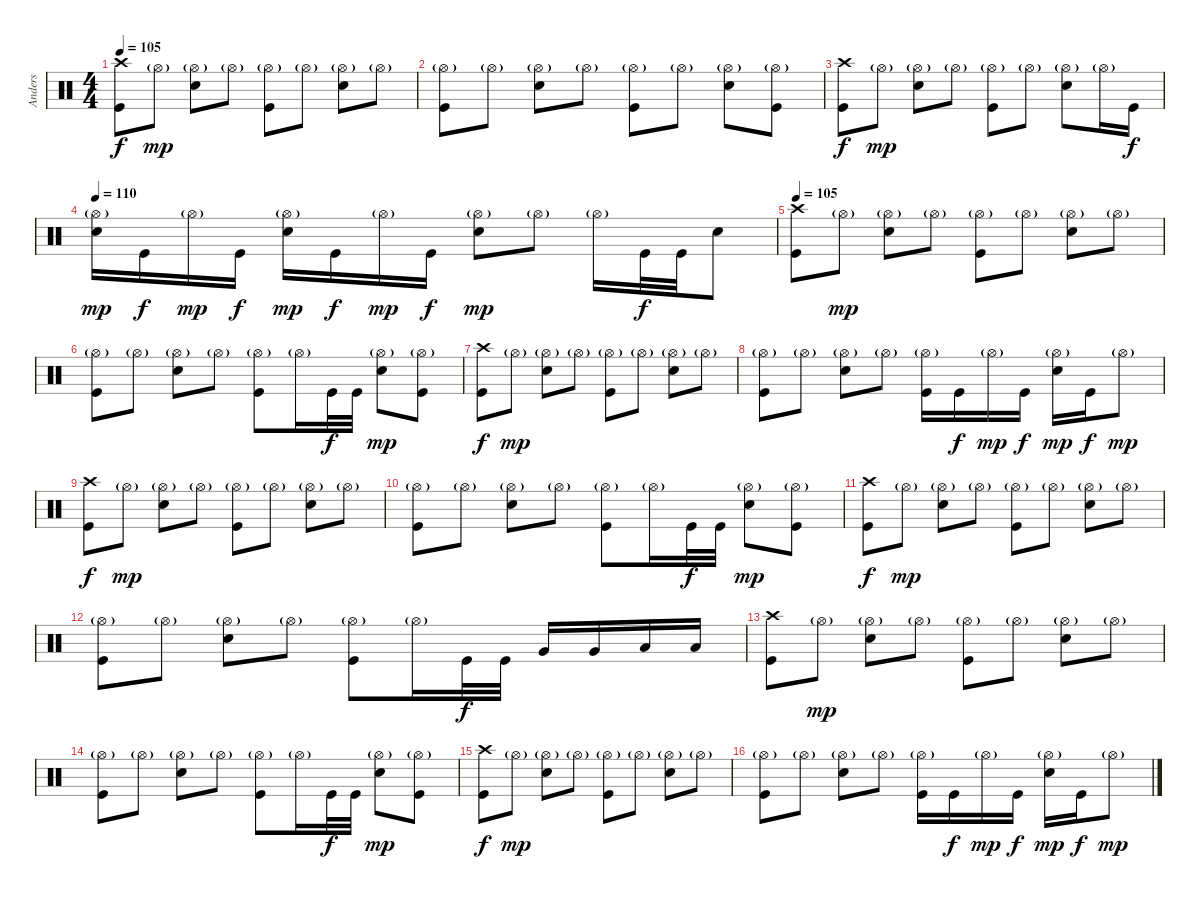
\track ("Anders" "Anders") {instrument percussion}
\staff {score}
\articulation defaults
\ts (4 4)
\tempo 105
\clef neutral
\ks c
("Crash high (hit)" "Kick (hit)").8{dy f} "Hi-Hat (open)"{g}.8{dy mp} ("Hi-Hat (open)"{g} "Snare (hit) 2").8 "Hi-Hat (open)"{g}.8 ("Hi-Hat (open)"{g} "Kick (hit)").8 "Hi-Hat (open)"{g}.8 ("Hi-Hat (open)"{g} "Snare (hit) 2").8 "Hi-Hat (open)"{g}.8 |
("Hi-Hat (open)"{g} "Kick (hit)").8 "Hi-Hat (open)"{g}.8 ("Hi-Hat (open)"{g} "Snare (hit) 2").8 "Hi-Hat (open)"{g}.8 ("Hi-Hat (open)"{g} "Kick (hit)").8 "Hi-Hat (open)"{g}.8 ("Hi-Hat (open)"{g} "Snare (hit) 2").8 ("Hi-Hat (open)"{g} "Kick (hit)").8 |
("Crash high (hit)" "Kick (hit)").8{dy f} "Hi-Hat (open)"{g}.8{dy mp} ("Hi-Hat (open)"{g} "Snare (hit) 2").8 "Hi-Hat (open)"{g}.8 ("Hi-Hat (open)"{g} "Kick (hit)").8 "Hi-Hat (open)"{g}.8 ("Hi-Hat (open)"{g} "Snare (hit) 2").8 "Hi-Hat (open)"{g}.16 "Kick (hit)".16{dy f} |
\tempo 110
("Hi-Hat (open)"{g} "Snare (hit) 2").16{dy mp} "Kick (hit)".16{dy f} "Hi-Hat (open)"{g}.16{dy mp} "Kick (hit)".16{dy f} ("Hi-Hat (open)"{g} "Snare (hit) 2").16{dy mp} "Kick (hit)".16{dy f} "Hi-Hat (open)"{g}.16{dy mp} "Kick (hit)".16{dy f} ("Hi-Hat (open)"{g} "Snare (hit) 2").8{dy mp} "Hi-Hat (open)"{g}.8 "Hi-Hat (open)"{g}.16 "Kick (hit)".32{dy f} "Kick (hit)".32 "Snare (hit) 2".8 |
\tempo 105
("Crash high (hit)" "Kick (hit)").8 "Hi-Hat (open)"{g}.8{dy mp} ("Hi-Hat (open)"{g} "Snare (hit) 2").8 "Hi-Hat (open)"{g}.8 ("Hi-Hat (open)"{g} "Kick (hit)").8 "Hi-Hat (open)"{g}.8 ("Hi-Hat (open)"{g} "Snare (hit) 2").8 "Hi-Hat (open)"{g}.8 |
("Hi-Hat (open)"{g} "Kick (hit)").8 "Hi-Hat (open)"{g}.8 ("Hi-Hat (open)"{g} "Snare (hit) 2").8 "Hi-Hat (open)"{g}.8 ("Hi-Hat (open)"{g} "Kick (hit)").8 "Hi-Hat (open)"{g}.16 "Kick (hit)".32{dy f} "Kick (hit)".32 ("Hi-Hat (open)"{g} "Snare (hit) 2").8{dy mp} ("Hi-Hat (open)"{g} "Kick (hit)").8 |
("Crash high (hit)" "Kick (hit)").8{dy f} "Hi-Hat (open)"{g}.8{dy mp} ("Hi-Hat (open)"{g} "Snare (hit) 2").8 "Hi-Hat (open)"{g}.8 ("Hi-Hat (open)"{g} "Kick (hit)").8 "Hi-Hat (open)"{g}.8 ("Hi-Hat (open)"{g} "Snare (hit) 2").8 "Hi-Hat (open)"{g}.8 |
("Hi-Hat (open)"{g} "Kick (hit)").8 "Hi-Hat (open)"{g}.8 ("Hi-Hat (open)"{g} "Snare (hit) 2").8 "Hi-Hat (open)"{g}.8 ("Hi-Hat (open)"{g} "Kick (hit)").16 "Kick (hit)".16{dy f} "Hi-Hat (open)"{g}.16{dy mp} "Kick (hit)".16{dy f} ("Hi-Hat (open)"{g} "Snare (hit) 2").16{dy mp} "Kick (hit)".16{dy f} "Hi-Hat (open)"{g}.8{dy mp} |
("Crash high (hit)" "Kick (hit)").8{dy f} "Hi-Hat (open)"{g}.8{dy mp} ("Hi-Hat (open)"{g} "Snare (hit) 2").8 "Hi-Hat (open)"{g}.8 ("Hi-Hat (open)"{g} "Kick (hit)").8 "Hi-Hat (open)"{g}.8 ("Hi-Hat (open)"{g} "Snare (hit) 2").8 "Hi-Hat (open)"{g}.8 |
("Hi-Hat (open)"{g} "Kick (hit)").8 "Hi-Hat (open)"{g}.8 ("Hi-Hat (open)"{g} "Snare (hit) 2").8 "Hi-Hat (open)"{g}.8 ("Hi-Hat (open)"{g} "Kick (hit)").8 "Hi-Hat (open)"{g}.16 "Kick (hit)".32{dy f} "Kick (hit)".32 ("Hi-Hat (open)"{g} "Snare (hit) 2").8{dy mp} ("Hi-Hat (open)"{g} "Kick (hit)").8 |
("Crash high (hit)" "Kick (hit)").8{dy f} "Hi-Hat (open)"{g}.8{dy mp} ("Hi-Hat (open)"{g} "Snare (hit) 2").8 "Hi-Hat (open)"{g}.8 ("Hi-Hat (open)"{g} "Kick (hit)").8 "Hi-Hat (open)"{g}.8 ("Hi-Hat (open)"{g} "Snare (hit) 2").8 "Hi-Hat (open)"{g}.8 |
("Hi-Hat (open)"{g} "Kick (hit)").8 "Hi-Hat (open)"{g}.8 ("Hi-Hat (open)"{g} "Snare (hit) 2").8 "Hi-Hat (open)"{g}.8 ("Hi-Hat (open)"{g} "Kick (hit)").8 "Hi-Hat (open)"{g}.16 "Kick (hit)".32{dy f} "Kick (hit)".32 "Very Low Tom (hit)".16 "Very Low Tom (hit)".16 "Low Floor Tom (hit)".16 "Low Floor Tom (hit)".16 |
("Crash high (hit)" "Kick (hit)").8 "Hi-Hat (open)"{g}.8{dy mp} ("Hi-Hat (open)"{g} "Snare (hit) 2").8 "Hi-Hat (open)"{g}.8 ("Hi-Hat (open)"{g} "Kick (hit)").8 "Hi-Hat (open)"{g}.8 ("Hi-Hat (open)"{g} "Snare (hit) 2").8 "Hi-Hat (open)"{g}.8 |
("Hi-Hat (open)"{g} "Kick (hit)").8 "Hi-Hat (open)"{g}.8 ("Hi-Hat (open)"{g} "Snare (hit) 2").8 "Hi-Hat (open)"{g}.8 ("Hi-Hat (open)"{g} "Kick (hit)").8 "Hi-Hat (open)"{g}.16 "Kick (hit)".32{dy f} "Kick (hit)".32 ("Hi-Hat (open)"{g} "Snare (hit) 2").8{dy mp} ("Hi-Hat (open)"{g} "Kick (hit)").8 |
("Crash high (hit)" "Kick (hit)").8{dy f} "Hi-Hat (open)"{g}.8{dy mp} ("Hi-Hat (open)"{g} "Snare (hit) 2").8 "Hi-Hat (open)"{g}.8 ("Hi-Hat (open)"{g} "Kick (hit)").8 "Hi-Hat (open)"{g}.8 ("Hi-Hat (open)"{g} "Snare (hit) 2").8 "Hi-Hat (open)"{g}.8 |
("Hi-Hat (open)"{g} "Kick (hit)").8 "Hi-Hat (open)"{g}.8 ("Hi-Hat (open)"{g} "Snare (hit) 2").8 "Hi-Hat (open)"{g}.8 ("Hi-Hat (open)"{g} "Kick (hit)").16 "Kick (hit)".16{dy f} "Hi-Hat (open)"{g}.16{dy mp} "Kick (hit)".16{dy f} ("Hi-Hat (open)"{g} "Snare (hit) 2").16{dy mp} "Kick (hit)".16{dy f} "Hi-Hat (open)"{g}.8{dy mp}
